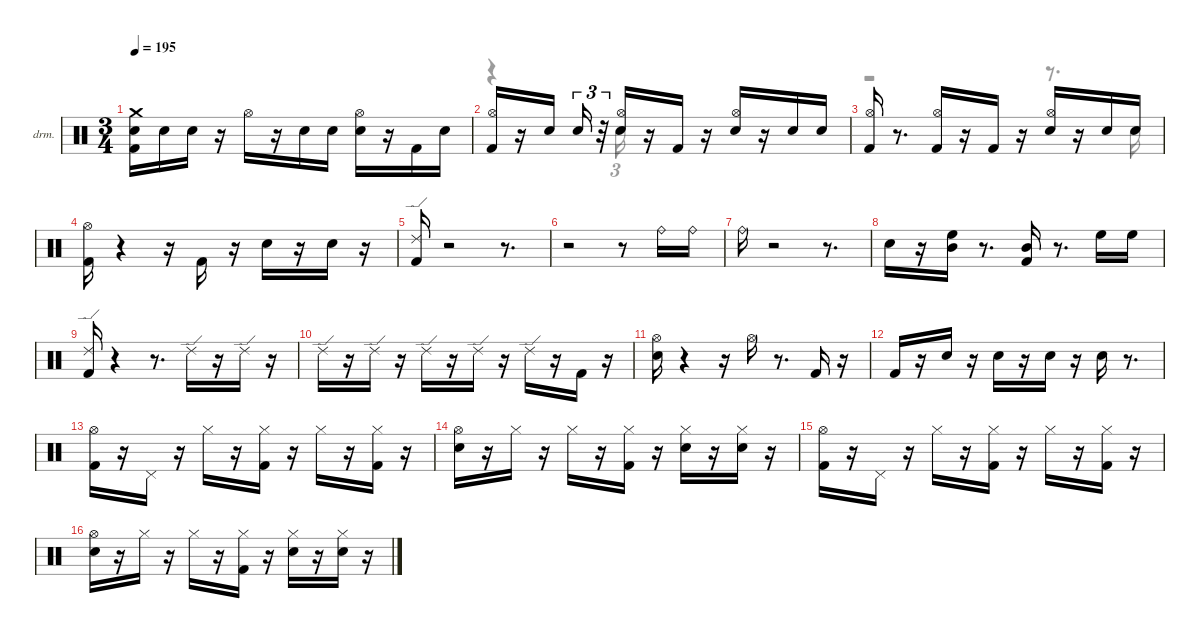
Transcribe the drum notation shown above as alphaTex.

\hideDynamics
\bracketExtendMode nobrackets
\firstSystemTrackNameOrientation horizontal
\otherSystemsTrackNameOrientation horizontal
\track ("EZdrummer 3" "drm.") {instrument percussion}
\staff {score}
\articulation defaults
\voice
\ts (3 4)
\tempo 195
\clef neutral
\ks aminor
("Kick (hit) 2" "Snare (hit) 2" "Crash medium (hit)").16{dy fff beam Down} "Snare (hit) 2".16{dy pp beam Down} "Snare (hit) 2".16{dy ppp beam Down} r.16{beam Down} "Hi-Hat (open)"{acc #}.16{dy mp beam Down} r.16{beam Down} "Snare (hit) 2".16{dy ff beam Down} "Snare (hit) 2".16{dy pp beam Down} ("Snare (hit) 2" "Hi-Hat (open)"{acc #}).16{dy mf beam Down} r.16{beam Down} "Kick (hit) 2".16{dy p beam Up} "Snare (hit) 2".16{dy ppp beam Up} |
("Kick (hit) 2" "Hi-Hat (open)"{acc #}).16{dy ff beam Up} r.16{beam Up} "Snare (hit) 2".16{beam Up} "Snare (hit) 2".16{tu (3 2) dy pp beam Up} r.32{tu (3 2) beam Up} ("Snare (hit) 2" "Hi-Hat (open)"{acc #}).16{dy ppp beam Up} r.16{beam Up} "Kick (hit) 2".16{dy f beam Up} r.16{beam Up} ("Snare (hit) 2" "Hi-Hat (open)"{acc #}).16{dy mf beam Up} r.16{beam Up} "Snare (hit) 2".16{dy f beam Up} "Snare (hit) 2".16{dy ppp beam Up} |
("Kick (hit) 2" "Hi-Hat (open)"{acc #}).16{dy fff beam Up} r.8{d beam Up} ("Kick (hit) 2" "Hi-Hat (open)"{acc #}).16{dy mp beam Up} r.16{beam Up} "Kick (hit) 2".16{dy ff beam Up} r.16{beam Up} ("Snare (hit) 2" "Hi-Hat (open)"{acc #}).16{beam Up} r.16{beam Up} "Snare (hit) 2".16{dy pp beam Up} "Snare (hit) 2".16{dy ppp beam Up} |
("Kick (hit) 2" "Hi-Hat (open)"{acc #}).16{dy fff beam Down} r.4{beam Down} r.16{beam Down} "Kick (hit) 2".16{dy ff beam Up} r.16{beam Up} "Snare (hit) 2".16{dy f beam Down} r.16{beam Down} "Snare (hit) 2".16{dy mp beam Down} r.16{beam Down} |
("Kick (hit) 2" "Ride (edge) 2").16{dy fff beam Up} r.2{beam Up} r.8{d beam Up} |
r.2{beam Down} r.8{beam Down} "Ride (bell)".16{dy ff beam Down} "Ride (bell)".16{dy f beam Down} |
"Ride (bell)".16{dy fff beam Down} r.2{beam Down} r.8{d beam Down} |
"Snare (hit) 2".16{dy ff beam Down} r.16{beam Down} ("Mid Tom (hit)" "High Floor Tom (hit)").16{beam Down} r.8{d beam Down} ("Kick (hit) 2" "Mid Tom (hit)").16{beam Up} r.8{d beam Up} "High Floor Tom (hit)".16{dy fff beam Down} "High Floor Tom (hit)".16{dy ff beam Down} |
("Kick (hit) 2" "Ride (edge) 2").16{beam Up} r.4{beam Up} r.8{d beam Up} "Ride (edge) 2".16{dy ppp beam Down} r.16{beam Down} "Ride (edge) 2".16{beam Down} r.16{beam Down} |
"Ride (edge) 2".16{beam Down} r.16{beam Down} "Ride (edge) 2".16{beam Down} r.16{beam Down} "Ride (edge) 2".16{beam Down} r.16{beam Down} "Ride (edge) 2".16{beam Down} r.16{beam Down} "Ride (edge) 2".16{dy f beam Down} r.16{beam Down} "Kick (hit) 2".16{dy ff beam Up} r.16{beam Up} |
("Snare (hit) 2" "Hi-Hat (open)"{acc #}).16{dy f beam Down} r.4{beam Down} r.16{beam Down} "Hi-Hat (open)"{acc #}.16{dy fff beam Down} r.8{d beam Down} "Kick (hit) 2".16{dy p beam Up} r.16{beam Up} |
"Kick (hit) 2".16{dy f beam Up} r.16{beam Up} "Snare (hit) 2".16{dy p beam Down} r.16{beam Down} "Snare (hit) 2".16{dy pp beam Down} r.16{beam Down} "Snare (hit) 2".16{dy ff beam Down} r.16{beam Down} "Snare (hit) 2".16{dy fff beam Down} r.8{d beam Down} |
("Kick (hit) 2" "Hi-Hat (open)"{acc #}).16{dy ff beam Down} r.16{beam Down} "Pedal Hi-Hat (hit)"{acc #}.16{beam Up} r.16{beam Up} "Hi-Hat (closed)"{acc #}.16{dy pp beam Down} r.16{beam Down} ("Kick (hit) 2" "Hi-Hat (closed)"{acc #}).16{dy ff beam Down} r.16{beam Down} "Hi-Hat (closed)"{acc #}.16{dy pp beam Down} r.16{beam Down} ("Kick (hit) 2" "Hi-Hat (closed)"{acc #}).16{dy mf beam Down} r.16{beam Down} |
("Snare (hit) 2" "Hi-Hat (open)"{acc #}).16{dy ff beam Down} r.16{beam Down} "Hi-Hat (closed)"{acc #}.16{dy f beam Down} r.16{beam Down} "Hi-Hat (closed)"{acc #}.16{dy fff beam Down} r.16{beam Down} ("Kick (hit) 2" "Hi-Hat (closed)"{acc #}).16{dy pp beam Down} r.16{beam Down} ("Snare (hit) 2" "Hi-Hat (closed)"{acc #}).16{dy ff beam Down} r.16{beam Down} ("Snare (hit) 2" "Hi-Hat (closed)"{acc #}).16{dy pp beam Down} r.16{beam Down} |
("Kick (hit) 2" "Hi-Hat (open)"{acc #}).16{dy fff beam Down} r.16{beam Down} "Pedal Hi-Hat (hit)"{acc #}.16{dy ff beam Up} r.16{beam Up} "Hi-Hat (closed)"{acc #}.16{dy pp beam Down} r.16{beam Down} ("Kick (hit) 2" "Hi-Hat (closed)"{acc #}).16{dy f beam Down} r.16{beam Down} "Hi-Hat (closed)"{acc #}.16{dy pp beam Down} r.16{beam Down} ("Kick (hit) 2" "Hi-Hat (closed)"{acc #}).16{dy mf beam Down} r.16{beam Down} |
("Snare (hit) 2" "Hi-Hat (open)"{acc #}).16{dy ff beam Down} r.16{beam Down} "Hi-Hat (closed)"{acc #}.16{dy f beam Down} r.16{beam Down} "Hi-Hat (closed)"{acc #}.16{dy fff beam Down} r.16{beam Down} ("Kick (hit) 2" "Hi-Hat (closed)"{acc #}).16{dy pp beam Down} r.16{beam Down} ("Snare (hit) 2" "Hi-Hat (closed)"{acc #}).16{dy f beam Down} r.16{beam Down} ("Snare (hit) 2" "Hi-Hat (closed)"{acc #}).16{dy ppp beam Down} r.16{beam Down}
\voice
\clef neutral
\ottava regular
\simile none
\ks aminor
|
r.4{beam Down} "Snare (hit) 2".16{tu (3 2) beam Down} |
r.2{beam Down} r.8{d beam Down} "Snare (hit) 2".16{beam Down} |
|
|
|
|
|
|
|
|
|
|
|
|
